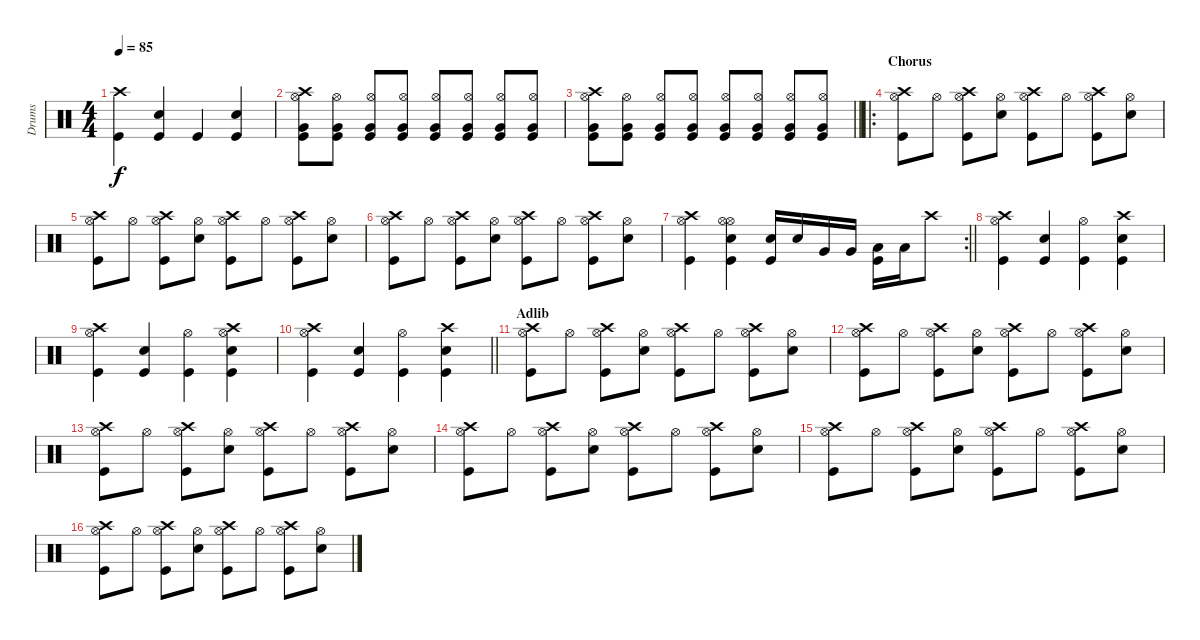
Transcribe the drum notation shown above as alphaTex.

\track ("Drums" "Drums") {instrument percussion}
\staff {score}
\articulation defaults
\ts (4 4)
\tempo 85
\clef neutral
\ks c
("Crash high (hit)" "Kick (hit)").4{dy f} ("Snare (hit) 2" "Kick (hit)").4 "Kick (hit)".4 ("Snare (hit) 2" "Kick (hit)").4 |
("Crash high (hit)" "Hi-Hat (open)" "Very Low Tom (hit)" "Kick (hit)").8 ("Hi-Hat (open)" "Very Low Tom (hit)" "Kick (hit)").8 ("Hi-Hat (open)" "Very Low Tom (hit)" "Kick (hit)").8 ("Hi-Hat (open)" "Very Low Tom (hit)" "Kick (hit)").8 ("Hi-Hat (open)" "Very Low Tom (hit)" "Kick (hit)").8 ("Hi-Hat (open)" "Very Low Tom (hit)" "Kick (hit)").8 ("Hi-Hat (open)" "Very Low Tom (hit)" "Kick (hit)").8 ("Hi-Hat (open)" "Very Low Tom (hit)" "Kick (hit)").8 |
\barLineRight lightlight
("Crash high (hit)" "Hi-Hat (open)" "Very Low Tom (hit)" "Kick (hit)").8 ("Hi-Hat (open)" "Very Low Tom (hit)" "Kick (hit)").8 ("Hi-Hat (open)" "Very Low Tom (hit)" "Kick (hit)").8 ("Hi-Hat (open)" "Very Low Tom (hit)" "Kick (hit)").8 ("Hi-Hat (open)" "Very Low Tom (hit)" "Kick (hit)").8 ("Hi-Hat (open)" "Very Low Tom (hit)" "Kick (hit)").8 ("Hi-Hat (open)" "Very Low Tom (hit)" "Kick (hit)").8 ("Hi-Hat (open)" "Very Low Tom (hit)" "Kick (hit)").8 |
\ro
\section ("" "Chorus")
("Crash high (hit)" "Hi-Hat (open)" "Kick (hit)").8 "Hi-Hat (open)".8 ("Crash high (hit)" "Hi-Hat (open)" "Kick (hit)").8 ("Hi-Hat (open)" "Snare (hit) 2").8 ("Crash high (hit)" "Hi-Hat (open)" "Kick (hit)").8 "Hi-Hat (open)".8 ("Crash high (hit)" "Hi-Hat (open)" "Kick (hit)").8 ("Hi-Hat (open)" "Snare (hit) 2").8 |
("Crash high (hit)" "Hi-Hat (open)" "Kick (hit)").8 "Hi-Hat (open)".8 ("Crash high (hit)" "Hi-Hat (open)" "Kick (hit)").8 ("Hi-Hat (open)" "Snare (hit) 2").8 ("Crash high (hit)" "Hi-Hat (open)" "Kick (hit)").8 "Hi-Hat (open)".8 ("Crash high (hit)" "Hi-Hat (open)" "Kick (hit)").8 ("Hi-Hat (open)" "Snare (hit) 2").8 |
("Crash high (hit)" "Hi-Hat (open)" "Kick (hit)").8 "Hi-Hat (open)".8 ("Crash high (hit)" "Hi-Hat (open)" "Kick (hit)").8 ("Hi-Hat (open)" "Snare (hit) 2").8 ("Crash high (hit)" "Hi-Hat (open)" "Kick (hit)").8 "Hi-Hat (open)".8 ("Crash high (hit)" "Hi-Hat (open)" "Kick (hit)").8 ("Hi-Hat (open)" "Snare (hit) 2").8 |
\rc 2
\barLineRight lightlight
("Crash high (hit)" "Hi-Hat (open)" "Kick (hit)").4 ("Hi-Hat (open)" "Hi-Hat (open)" "Snare (hit) 2" "Kick (hit)").4 ("Snare (hit) 2" "Kick (hit)").16 "Snare (hit) 2".16 "Very Low Tom (hit)".16 "Very Low Tom (hit)".16 ("Low Tom (hit)" "Kick (hit)").16 "Low Tom (hit)".16 "Crash high (hit)".8 |
("Crash high (hit)" "Hi-Hat (open)" "Kick (hit)").4 ("Snare (hit) 2" "Kick (hit)").4 ("Hi-Hat (open)" "Kick (hit)").4 ("Crash high (hit)" "Snare (hit) 2" "Kick (hit)").4 |
("Crash high (hit)" "Hi-Hat (open)" "Kick (hit)").4 ("Snare (hit) 2" "Kick (hit)").4 ("Hi-Hat (open)" "Kick (hit)").4 ("Crash high (hit)" "Hi-Hat (open)" "Snare (hit) 2" "Kick (hit)").4 |
\barLineRight lightlight
("Crash high (hit)" "Hi-Hat (open)" "Kick (hit)").4 ("Snare (hit) 2" "Kick (hit)").4 ("Hi-Hat (open)" "Kick (hit)").4 ("Crash high (hit)" "Snare (hit) 2" "Kick (hit)").4 |
\section ("" "Adlib")
("Crash high (hit)" "Hi-Hat (open)" "Kick (hit)").8 "Hi-Hat (open)".8 ("Crash high (hit)" "Hi-Hat (open)" "Kick (hit)").8 ("Hi-Hat (open)" "Snare (hit) 2").8 ("Crash high (hit)" "Hi-Hat (open)" "Kick (hit)").8 "Hi-Hat (open)".8 ("Crash high (hit)" "Hi-Hat (open)" "Kick (hit)").8 ("Hi-Hat (open)" "Snare (hit) 2").8 |
("Crash high (hit)" "Hi-Hat (open)" "Kick (hit)").8 "Hi-Hat (open)".8 ("Crash high (hit)" "Hi-Hat (open)" "Kick (hit)").8 ("Hi-Hat (open)" "Snare (hit) 2").8 ("Crash high (hit)" "Hi-Hat (open)" "Kick (hit)").8 "Hi-Hat (open)".8 ("Crash high (hit)" "Hi-Hat (open)" "Kick (hit)").8 ("Hi-Hat (open)" "Snare (hit) 2").8 |
("Crash high (hit)" "Hi-Hat (open)" "Kick (hit)").8 "Hi-Hat (open)".8 ("Crash high (hit)" "Hi-Hat (open)" "Kick (hit)").8 ("Hi-Hat (open)" "Snare (hit) 2").8 ("Crash high (hit)" "Hi-Hat (open)" "Kick (hit)").8 "Hi-Hat (open)".8 ("Crash high (hit)" "Hi-Hat (open)" "Kick (hit)").8 ("Hi-Hat (open)" "Snare (hit) 2").8 |
("Crash high (hit)" "Hi-Hat (open)" "Kick (hit)").8 "Hi-Hat (open)".8 ("Crash high (hit)" "Hi-Hat (open)" "Kick (hit)").8 ("Hi-Hat (open)" "Snare (hit) 2").8 ("Crash high (hit)" "Hi-Hat (open)" "Kick (hit)").8 "Hi-Hat (open)".8 ("Crash high (hit)" "Hi-Hat (open)" "Kick (hit)").8 ("Hi-Hat (open)" "Snare (hit) 2").8 |
("Crash high (hit)" "Hi-Hat (open)" "Kick (hit)").8 "Hi-Hat (open)".8 ("Crash high (hit)" "Hi-Hat (open)" "Kick (hit)").8 ("Hi-Hat (open)" "Snare (hit) 2").8 ("Crash high (hit)" "Hi-Hat (open)" "Kick (hit)").8 "Hi-Hat (open)".8 ("Crash high (hit)" "Hi-Hat (open)" "Kick (hit)").8 ("Hi-Hat (open)" "Snare (hit) 2").8 |
("Crash high (hit)" "Hi-Hat (open)" "Kick (hit)").8 "Hi-Hat (open)".8 ("Crash high (hit)" "Hi-Hat (open)" "Kick (hit)").8 ("Hi-Hat (open)" "Snare (hit) 2").8 ("Crash high (hit)" "Hi-Hat (open)" "Kick (hit)").8 "Hi-Hat (open)".8 ("Crash high (hit)" "Hi-Hat (open)" "Kick (hit)").8 ("Hi-Hat (open)" "Snare (hit) 2").8
